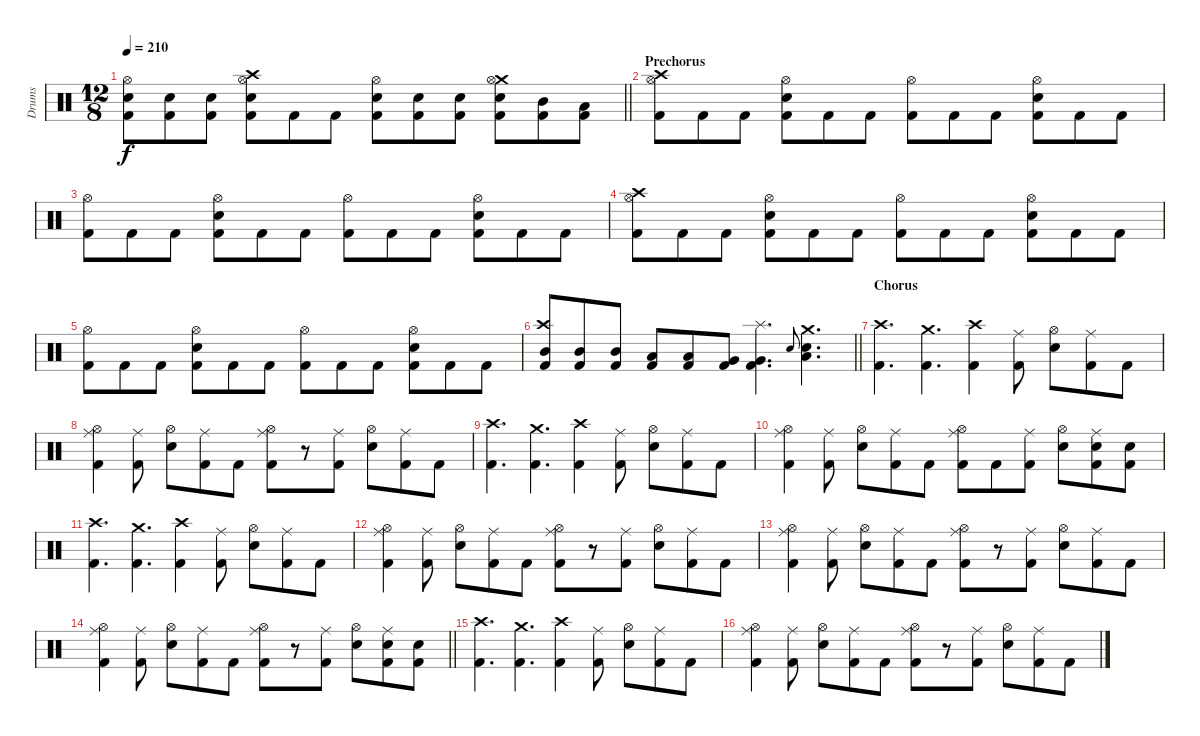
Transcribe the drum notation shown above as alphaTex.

\track ("Drums" "Drums") {instrument percussion}
\staff {score}
\articulation defaults
\ts (12 8)
\tempo 210
\clef neutral
\barLineRight lightlight
\ks c
("Hi-Hat (open)" "Snare (hit) 2" "Kick (hit) 2").8{dy f} ("Snare (hit) 2" "Kick (hit) 2").8 ("Snare (hit) 2" "Kick (hit) 2").8 ("Crash high (hit)" "Hi-Hat (open)" "Snare (hit) 2" "Kick (hit) 2").8 "Kick (hit) 2".8 "Kick (hit) 2".8 ("Hi-Hat (open)" "Snare (hit) 2" "Kick (hit) 2").8 ("Snare (hit) 2" "Kick (hit) 2").8 ("Snare (hit) 2" "Kick (hit) 2").8 ("Crash medium (hit)" "Hi-Hat (open)" "Snare (hit) 2" "Kick (hit) 2").8 ("Mid Tom (hit)" "Kick (hit) 2").8 ("Low Tom (hit)" "Kick (hit) 2").8 |
\section ("" "Prechorus")
("Crash high (hit)" "Hi-Hat (open)" "Kick (hit) 2").8 "Kick (hit) 2".8 "Kick (hit) 2".8 ("Hi-Hat (open)" "Snare (hit) 2" "Kick (hit) 2").8 "Kick (hit) 2".8 "Kick (hit) 2".8 ("Hi-Hat (open)" "Kick (hit) 2").8 "Kick (hit) 2".8 "Kick (hit) 2".8 ("Hi-Hat (open)" "Snare (hit) 2" "Kick (hit) 2").8 "Kick (hit) 2".8 "Kick (hit) 2".8 |
("Hi-Hat (open)" "Kick (hit) 2").8 "Kick (hit) 2".8 "Kick (hit) 2".8 ("Hi-Hat (open)" "Snare (hit) 2" "Kick (hit) 2").8 "Kick (hit) 2".8 "Kick (hit) 2".8 ("Hi-Hat (open)" "Kick (hit) 2").8 "Kick (hit) 2".8 "Kick (hit) 2".8 ("Hi-Hat (open)" "Snare (hit) 2" "Kick (hit) 2").8 "Kick (hit) 2".8 "Kick (hit) 2".8 |
("Crash high (hit)" "Hi-Hat (open)" "Kick (hit) 2").8 "Kick (hit) 2".8 "Kick (hit) 2".8 ("Hi-Hat (open)" "Snare (hit) 2" "Kick (hit) 2").8 "Kick (hit) 2".8 "Kick (hit) 2".8 ("Hi-Hat (open)" "Kick (hit) 2").8 "Kick (hit) 2".8 "Kick (hit) 2".8 ("Hi-Hat (open)" "Snare (hit) 2" "Kick (hit) 2").8 "Kick (hit) 2".8 "Kick (hit) 2".8 |
("Hi-Hat (open)" "Kick (hit) 2").8 "Kick (hit) 2".8 "Kick (hit) 2".8 ("Hi-Hat (open)" "Snare (hit) 2" "Kick (hit) 2").8 "Kick (hit) 2".8 "Kick (hit) 2".8 ("Hi-Hat (open)" "Kick (hit) 2").8 "Kick (hit) 2".8 "Kick (hit) 2".8 ("Hi-Hat (open)" "Snare (hit) 2" "Kick (hit) 2").8 "Kick (hit) 2".8 "Kick (hit) 2".8 |
\barLineRight lightlight
("Crash high (hit)" "Mid Tom (hit)" "Kick (hit) 2").8 ("Mid Tom (hit)" "Kick (hit) 2").8 ("Mid Tom (hit)" "Kick (hit) 2").8 ("Low Tom (hit)" "Kick (hit) 2").8 ("Low Tom (hit)" "Kick (hit) 2").8 ("Very Low Tom (hit)" "Kick (hit) 2").8 ("Splash (hit)" "Very Low Tom (hit)" "Kick (hit) 2").4{d} "Snare (hit) 2".8{gr onbeat} ("Crash medium (hit)" "Low Floor Tom (hit)" "Snare (hit) 2").4{d} |
\section ("" "Chorus")
("Crash high (hit)" "Kick (hit) 2").4{d} ("Crash medium (hit)" "Kick (hit) 2").4{d} ("Crash high (hit)" "Kick (hit) 2").4 ("Ride (middle)" "Kick (hit) 2").8 ("Hi-Hat (open)" "Snare (hit) 2").8 ("Ride (middle)" "Kick (hit) 2").8 "Kick (hit) 2".8 |
("Ride (middle)" "Hi-Hat (open)" "Kick (hit) 2").4 ("Ride (middle)" "Kick (hit) 2").8 ("Hi-Hat (open)" "Snare (hit) 2").8 ("Ride (middle)" "Kick (hit) 2").8 "Kick (hit) 2".8 ("Ride (middle)" "Hi-Hat (open)" "Kick (hit) 2").8 r.8 ("Ride (middle)" "Kick (hit) 2").8 ("Hi-Hat (open)" "Snare (hit) 2").8 ("Ride (middle)" "Kick (hit) 2").8 "Kick (hit) 2".8 |
("Crash high (hit)" "Kick (hit) 2").4{d} ("Crash medium (hit)" "Kick (hit) 2").4{d} ("Crash high (hit)" "Kick (hit) 2").4 ("Ride (middle)" "Kick (hit) 2").8 ("Hi-Hat (open)" "Snare (hit) 2").8 ("Ride (middle)" "Kick (hit) 2").8 "Kick (hit) 2".8 |
("Ride (middle)" "Hi-Hat (open)" "Kick (hit) 2").4 ("Ride (middle)" "Kick (hit) 2").8 ("Hi-Hat (open)" "Snare (hit) 2").8 ("Ride (middle)" "Kick (hit) 2").8 "Kick (hit) 2".8 ("Ride (middle)" "Hi-Hat (open)" "Kick (hit) 2").8 "Kick (hit) 2".8 ("Ride (middle)" "Kick (hit) 2").8 ("Hi-Hat (open)" "Snare (hit) 2").8 ("Ride (middle)" "Snare (hit) 2" "Kick (hit) 2").8 ("Snare (hit) 2" "Kick (hit) 2").8 |
("Crash high (hit)" "Kick (hit) 2").4{d} ("Crash medium (hit)" "Kick (hit) 2").4{d} ("Crash high (hit)" "Kick (hit) 2").4 ("Ride (middle)" "Kick (hit) 2").8 ("Hi-Hat (open)" "Snare (hit) 2").8 ("Ride (middle)" "Kick (hit) 2").8 "Kick (hit) 2".8 |
("Ride (middle)" "Hi-Hat (open)" "Kick (hit) 2").4 ("Ride (middle)" "Kick (hit) 2").8 ("Hi-Hat (open)" "Snare (hit) 2").8 ("Ride (middle)" "Kick (hit) 2").8 "Kick (hit) 2".8 ("Ride (middle)" "Hi-Hat (open)" "Kick (hit) 2").8 r.8 ("Ride (middle)" "Kick (hit) 2").8 ("Hi-Hat (open)" "Snare (hit) 2").8 ("Ride (middle)" "Kick (hit) 2").8 "Kick (hit) 2".8 |
("Ride (middle)" "Hi-Hat (open)" "Kick (hit) 2").4 ("Ride (middle)" "Kick (hit) 2").8 ("Hi-Hat (open)" "Snare (hit) 2").8 ("Ride (middle)" "Kick (hit) 2").8 "Kick (hit) 2".8 ("Ride (middle)" "Hi-Hat (open)" "Kick (hit) 2").8 r.8 ("Ride (middle)" "Kick (hit) 2").8 ("Hi-Hat (open)" "Snare (hit) 2").8 ("Ride (middle)" "Kick (hit) 2").8 "Kick (hit) 2".8 |
\barLineRight lightlight
("Ride (middle)" "Hi-Hat (open)" "Kick (hit) 2").4 ("Ride (middle)" "Kick (hit) 2").8 ("Hi-Hat (open)" "Snare (hit) 2").8 ("Ride (middle)" "Kick (hit) 2").8 "Kick (hit) 2".8 ("Ride (middle)" "Hi-Hat (open)" "Kick (hit) 2").8 r.8 ("Ride (middle)" "Kick (hit) 2").8 ("Hi-Hat (open)" "Snare (hit) 2").8 ("Ride (middle)" "Snare (hit) 2" "Kick (hit) 2").8 ("Snare (hit) 2" "Kick (hit) 2").8 |
("Crash high (hit)" "Kick (hit) 2").4{d} ("Crash medium (hit)" "Kick (hit) 2").4{d} ("Crash high (hit)" "Kick (hit) 2").4 ("Ride (middle)" "Kick (hit) 2").8 ("Hi-Hat (open)" "Snare (hit) 2").8 ("Ride (middle)" "Kick (hit) 2").8 "Kick (hit) 2".8 |
("Ride (middle)" "Hi-Hat (open)" "Kick (hit) 2").4 ("Ride (middle)" "Kick (hit) 2").8 ("Hi-Hat (open)" "Snare (hit) 2").8 ("Ride (middle)" "Kick (hit) 2").8 "Kick (hit) 2".8 ("Ride (middle)" "Hi-Hat (open)" "Kick (hit) 2").8 r.8 ("Ride (middle)" "Kick (hit) 2").8 ("Hi-Hat (open)" "Snare (hit) 2").8 ("Ride (middle)" "Kick (hit) 2").8 "Kick (hit) 2".8
